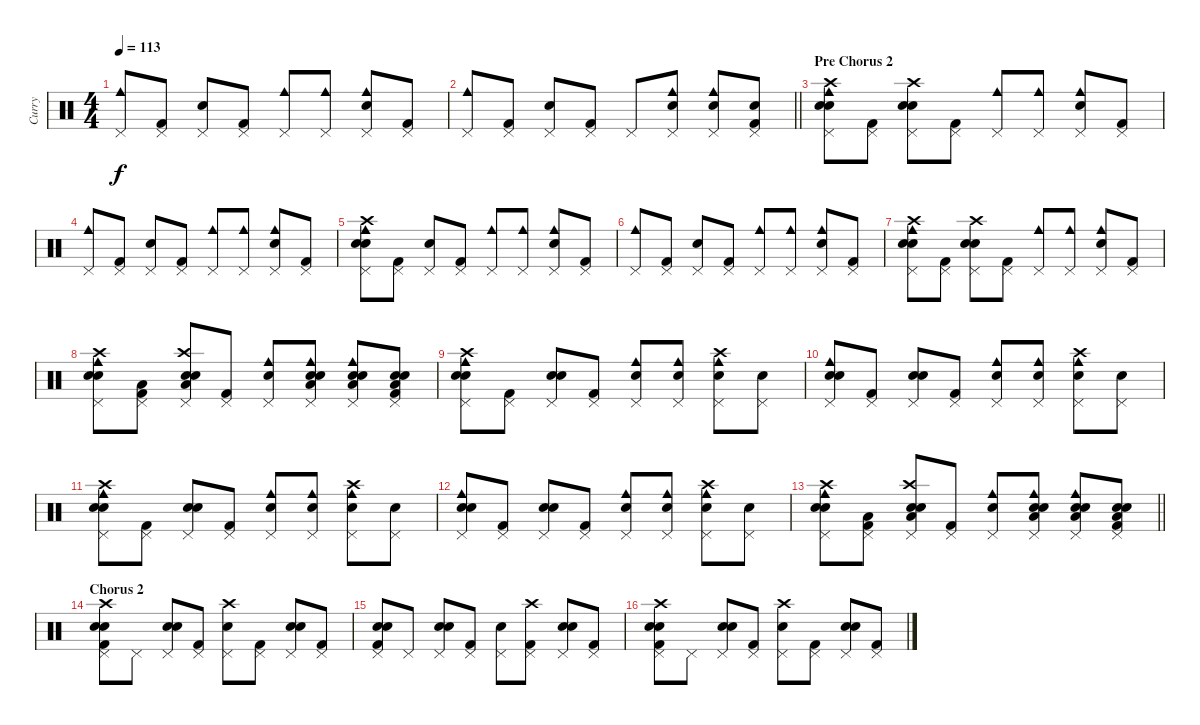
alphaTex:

\track ("Curry" "Curry") {instrument percussion}
\staff {score}
\articulation defaults
\ts (4 4)
\tempo 113
\clef neutral
\ks c
("Pedal Hi-Hat (hit)" "Cowbell medium (hit)").8{dy f} ("Pedal Hi-Hat (hit)" "Kick (hit) 2").8 ("Pedal Hi-Hat (hit)" "Electric Snare (hit)").8 ("Pedal Hi-Hat (hit)" "Kick (hit) 2").8 ("Pedal Hi-Hat (hit)" "Cowbell medium (hit)").8 ("Pedal Hi-Hat (hit)" "Cowbell medium (hit)").8 ("Pedal Hi-Hat (hit)" "Cowbell medium (hit)" "Electric Snare (hit)").8 ("Pedal Hi-Hat (hit)" "Kick (hit) 2").8 |
\barLineRight lightlight
("Pedal Hi-Hat (hit)" "Cowbell medium (hit)").8 ("Pedal Hi-Hat (hit)" "Kick (hit) 2").8 ("Pedal Hi-Hat (hit)" "Electric Snare (hit)").8 ("Pedal Hi-Hat (hit)" "Kick (hit) 2").8 "Pedal Hi-Hat (hit)".8 ("Pedal Hi-Hat (hit)" "Cowbell medium (hit)" "Electric Snare (hit)").8 ("Pedal Hi-Hat (hit)" "Cowbell medium (hit)" "Electric Snare (hit)").8 ("Pedal Hi-Hat (hit)" "Kick (hit) 2" "Electric Snare (hit)").8 |
\section ("" "Pre Chorus 2")
("Pedal Hi-Hat (hit)" "Cowbell medium (hit)" "Electric Snare (hit)" "Snare (hit) 2" "Crash high (hit)").8 ("Pedal Hi-Hat (hit)" "Kick (hit) 2").8 ("Pedal Hi-Hat (hit)" "Electric Snare (hit)" "Snare (hit) 2" "Crash high (hit)").8 ("Pedal Hi-Hat (hit)" "Kick (hit) 2").8 ("Pedal Hi-Hat (hit)" "Cowbell medium (hit)").8 ("Pedal Hi-Hat (hit)" "Cowbell medium (hit)").8 ("Pedal Hi-Hat (hit)" "Cowbell medium (hit)" "Electric Snare (hit)").8 ("Pedal Hi-Hat (hit)" "Kick (hit) 2").8 |
("Pedal Hi-Hat (hit)" "Cowbell medium (hit)").8 ("Pedal Hi-Hat (hit)" "Kick (hit) 2").8 ("Pedal Hi-Hat (hit)" "Electric Snare (hit)").8 ("Pedal Hi-Hat (hit)" "Kick (hit) 2").8 ("Pedal Hi-Hat (hit)" "Cowbell medium (hit)").8 ("Pedal Hi-Hat (hit)" "Cowbell medium (hit)").8 ("Pedal Hi-Hat (hit)" "Cowbell medium (hit)" "Electric Snare (hit)").8 ("Pedal Hi-Hat (hit)" "Kick (hit) 2").8 |
("Pedal Hi-Hat (hit)" "Cowbell medium (hit)" "Electric Snare (hit)" "Snare (hit) 2" "Crash high (hit)").8 ("Pedal Hi-Hat (hit)" "Kick (hit) 2").8 ("Pedal Hi-Hat (hit)" "Electric Snare (hit)").8 ("Pedal Hi-Hat (hit)" "Kick (hit) 2").8 ("Pedal Hi-Hat (hit)" "Cowbell medium (hit)").8 ("Pedal Hi-Hat (hit)" "Cowbell medium (hit)").8 ("Pedal Hi-Hat (hit)" "Cowbell medium (hit)" "Electric Snare (hit)").8 ("Pedal Hi-Hat (hit)" "Kick (hit) 2").8 |
("Pedal Hi-Hat (hit)" "Cowbell medium (hit)").8 ("Pedal Hi-Hat (hit)" "Kick (hit) 2").8 ("Pedal Hi-Hat (hit)" "Electric Snare (hit)").8 ("Pedal Hi-Hat (hit)" "Kick (hit) 2").8 ("Pedal Hi-Hat (hit)" "Cowbell medium (hit)").8 ("Pedal Hi-Hat (hit)" "Cowbell medium (hit)").8 ("Pedal Hi-Hat (hit)" "Cowbell medium (hit)" "Electric Snare (hit)").8 ("Pedal Hi-Hat (hit)" "Kick (hit) 2").8 |
("Pedal Hi-Hat (hit)" "Cowbell medium (hit)" "Electric Snare (hit)" "Snare (hit) 2" "Crash high (hit)").8 ("Pedal Hi-Hat (hit)" "Kick (hit) 2").8 ("Pedal Hi-Hat (hit)" "Electric Snare (hit)" "Snare (hit) 2" "Crash high (hit)").8 ("Pedal Hi-Hat (hit)" "Kick (hit) 2").8 ("Pedal Hi-Hat (hit)" "Cowbell medium (hit)").8 ("Pedal Hi-Hat (hit)" "Cowbell medium (hit)").8 ("Pedal Hi-Hat (hit)" "Cowbell medium (hit)" "Electric Snare (hit)").8 ("Pedal Hi-Hat (hit)" "Kick (hit) 2").8 |
("Pedal Hi-Hat (hit)" "Cowbell medium (hit)" "Electric Snare (hit)" "Snare (hit) 2" "Crash high (hit)").8 ("Pedal Hi-Hat (hit)" "Kick (hit) 2" "Low Tom (hit)").8 ("Pedal Hi-Hat (hit)" "Electric Snare (hit)" "Snare (hit) 2" "Low Tom (hit)" "Crash high (hit)").8 ("Pedal Hi-Hat (hit)" "Kick (hit) 2").8 ("Pedal Hi-Hat (hit)" "Cowbell medium (hit)" "Snare (hit) 2").8 ("Pedal Hi-Hat (hit)" "Cowbell medium (hit)" "Electric Snare (hit)" "Snare (hit) 2" "Low Tom (hit)").8 ("Pedal Hi-Hat (hit)" "Cowbell medium (hit)" "Electric Snare (hit)" "Snare (hit) 2" "Low Tom (hit)").8 ("Pedal Hi-Hat (hit)" "Kick (hit) 2" "Electric Snare (hit)" "Snare (hit) 2" "Low Tom (hit)").8 |
("Pedal Hi-Hat (hit)" "Cowbell medium (hit)" "Electric Snare (hit)" "Snare (hit) 2" "Crash high (hit)").8 ("Pedal Hi-Hat (hit)" "Kick (hit) 2").8 ("Pedal Hi-Hat (hit)" "Electric Snare (hit)" "Snare (hit) 2").8 ("Pedal Hi-Hat (hit)" "Kick (hit) 2").8 ("Pedal Hi-Hat (hit)" "Cowbell medium (hit)" "Snare (hit) 2").8 ("Pedal Hi-Hat (hit)" "Cowbell medium (hit)" "Snare (hit) 2").8 ("Pedal Hi-Hat (hit)" "Cowbell medium (hit)" "Electric Snare (hit)" "Crash high (hit)").8 ("Pedal Hi-Hat (hit)" "Snare (hit) 2").8 |
("Pedal Hi-Hat (hit)" "Cowbell medium (hit)" "Electric Snare (hit)" "Snare (hit) 2").8 ("Pedal Hi-Hat (hit)" "Kick (hit) 2").8 ("Pedal Hi-Hat (hit)" "Electric Snare (hit)" "Snare (hit) 2").8 ("Pedal Hi-Hat (hit)" "Kick (hit) 2").8 ("Pedal Hi-Hat (hit)" "Cowbell medium (hit)" "Snare (hit) 2").8 ("Pedal Hi-Hat (hit)" "Cowbell medium (hit)" "Snare (hit) 2").8 ("Pedal Hi-Hat (hit)" "Cowbell medium (hit)" "Electric Snare (hit)" "Crash high (hit)").8 ("Pedal Hi-Hat (hit)" "Snare (hit) 2").8 |
("Pedal Hi-Hat (hit)" "Cowbell medium (hit)" "Electric Snare (hit)" "Snare (hit) 2" "Crash high (hit)").8 ("Pedal Hi-Hat (hit)" "Kick (hit) 2").8 ("Pedal Hi-Hat (hit)" "Electric Snare (hit)" "Snare (hit) 2").8 ("Pedal Hi-Hat (hit)" "Kick (hit) 2").8 ("Pedal Hi-Hat (hit)" "Cowbell medium (hit)" "Snare (hit) 2").8 ("Pedal Hi-Hat (hit)" "Cowbell medium (hit)" "Snare (hit) 2").8 ("Pedal Hi-Hat (hit)" "Cowbell medium (hit)" "Electric Snare (hit)" "Crash high (hit)").8 ("Pedal Hi-Hat (hit)" "Snare (hit) 2").8 |
("Pedal Hi-Hat (hit)" "Cowbell medium (hit)" "Electric Snare (hit)" "Snare (hit) 2").8 ("Pedal Hi-Hat (hit)" "Kick (hit) 2").8 ("Pedal Hi-Hat (hit)" "Electric Snare (hit)" "Snare (hit) 2").8 ("Pedal Hi-Hat (hit)" "Kick (hit) 2").8 ("Pedal Hi-Hat (hit)" "Cowbell medium (hit)" "Snare (hit) 2").8 ("Pedal Hi-Hat (hit)" "Cowbell medium (hit)" "Snare (hit) 2").8 ("Pedal Hi-Hat (hit)" "Cowbell medium (hit)" "Electric Snare (hit)" "Crash high (hit)").8 ("Pedal Hi-Hat (hit)" "Snare (hit) 2").8 |
\barLineRight lightlight
("Pedal Hi-Hat (hit)" "Cowbell medium (hit)" "Electric Snare (hit)" "Snare (hit) 2" "Crash high (hit)").8 ("Pedal Hi-Hat (hit)" "Kick (hit) 2" "Low Tom (hit)").8 ("Pedal Hi-Hat (hit)" "Electric Snare (hit)" "Snare (hit) 2" "Low Tom (hit)" "Crash high (hit)").8 ("Pedal Hi-Hat (hit)" "Kick (hit) 2").8 ("Pedal Hi-Hat (hit)" "Cowbell medium (hit)" "Snare (hit) 2").8 ("Pedal Hi-Hat (hit)" "Cowbell medium (hit)" "Electric Snare (hit)" "Snare (hit) 2" "Low Tom (hit)").8 ("Pedal Hi-Hat (hit)" "Cowbell medium (hit)" "Electric Snare (hit)" "Snare (hit) 2" "Low Tom (hit)").8 ("Pedal Hi-Hat (hit)" "Kick (hit) 2" "Electric Snare (hit)" "Snare (hit) 2" "Low Tom (hit)").8 |
\section ("" "Chorus 2")
("Pedal Hi-Hat (hit)" "Kick (hit) 2" "Electric Snare (hit)" "Snare (hit) 2" "Crash high (hit)").8 "Pedal Hi-Hat (hit)".8 ("Pedal Hi-Hat (hit)" "Electric Snare (hit)" "Snare (hit) 2").8 ("Pedal Hi-Hat (hit)" "Kick (hit) 2").8 ("Pedal Hi-Hat (hit)" "Snare (hit) 2" "Crash high (hit)").8 ("Pedal Hi-Hat (hit)" "Kick (hit) 2").8 ("Pedal Hi-Hat (hit)" "Electric Snare (hit)" "Snare (hit) 2").8 ("Pedal Hi-Hat (hit)" "Kick (hit) 2").8 |
("Pedal Hi-Hat (hit)" "Kick (hit) 2" "Electric Snare (hit)" "Snare (hit) 2").8 "Pedal Hi-Hat (hit)".8 ("Pedal Hi-Hat (hit)" "Electric Snare (hit)" "Snare (hit) 2").8 ("Pedal Hi-Hat (hit)" "Kick (hit) 2").8 ("Pedal Hi-Hat (hit)" "Snare (hit) 2").8 ("Pedal Hi-Hat (hit)" "Kick (hit) 2" "Crash high (hit)").8 ("Pedal Hi-Hat (hit)" "Electric Snare (hit)" "Snare (hit) 2").8 ("Pedal Hi-Hat (hit)" "Kick (hit) 2").8 |
("Pedal Hi-Hat (hit)" "Kick (hit) 2" "Electric Snare (hit)" "Snare (hit) 2" "Crash high (hit)").8 "Pedal Hi-Hat (hit)".8 ("Pedal Hi-Hat (hit)" "Electric Snare (hit)" "Snare (hit) 2").8 ("Pedal Hi-Hat (hit)" "Kick (hit) 2").8 ("Pedal Hi-Hat (hit)" "Snare (hit) 2" "Crash high (hit)").8 ("Pedal Hi-Hat (hit)" "Kick (hit) 2").8 ("Pedal Hi-Hat (hit)" "Electric Snare (hit)" "Snare (hit) 2").8 ("Pedal Hi-Hat (hit)" "Kick (hit) 2").8
